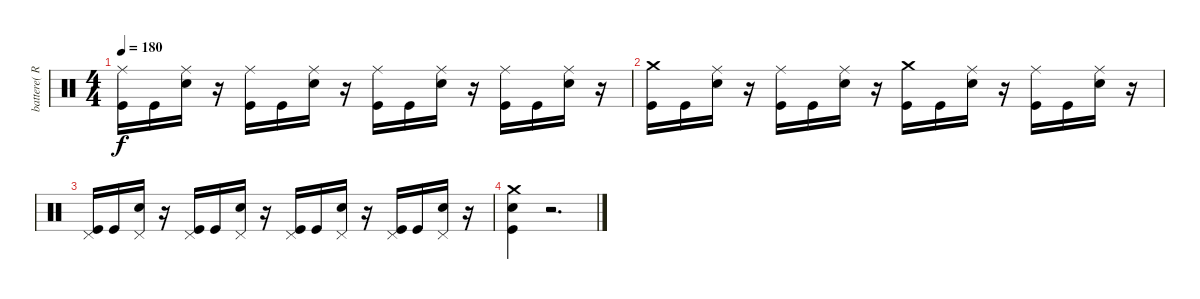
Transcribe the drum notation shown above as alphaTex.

\track ("battere( Rob )" "battere( R") {instrument percussion}
\staff {score}
\articulation defaults
\ts (4 4)
\tempo 180
\clef neutral
\ks c
("Ride (middle)" "Kick (hit)").16{dy f} "Kick (hit)".16 ("Ride (middle)" "Snare (hit) 2").16 r.16 ("Ride (middle)" "Kick (hit)").16 "Kick (hit)".16 ("Ride (middle)" "Snare (hit) 2").16 r.16 ("Ride (middle)" "Kick (hit)").16 "Kick (hit)".16 ("Ride (middle)" "Snare (hit) 2").16 r.16 ("Ride (middle)" "Kick (hit)").16 "Kick (hit)".16 ("Ride (middle)" "Snare (hit) 2").16 r.16 |
("Crash medium (hit)" "Kick (hit)").16 "Kick (hit)".16 ("Ride (middle)" "Snare (hit) 2").16 r.16 ("Ride (middle)" "Kick (hit)").16 "Kick (hit)".16 ("Ride (middle)" "Snare (hit) 2").16 r.16 ("Crash medium (hit)" "Kick (hit)").16 "Kick (hit)".16 ("Ride (middle)" "Snare (hit) 2").16 r.16 ("Ride (middle)" "Kick (hit)").16 "Kick (hit)".16 ("Ride (middle)" "Snare (hit) 2").16 r.16 |
("Pedal Hi-Hat (hit)" "Kick (hit)").16 "Kick (hit)".16 ("Pedal Hi-Hat (hit)" "Snare (hit) 2").16 r.16 ("Pedal Hi-Hat (hit)" "Kick (hit)").16 "Kick (hit)".16 ("Pedal Hi-Hat (hit)" "Snare (hit) 2").16 r.16 ("Pedal Hi-Hat (hit)" "Kick (hit)").16 "Kick (hit)".16 ("Pedal Hi-Hat (hit)" "Snare (hit) 2").16 r.16 ("Pedal Hi-Hat (hit)" "Kick (hit)").16 "Kick (hit)".16 ("Pedal Hi-Hat (hit)" "Snare (hit) 2").16 r.16 |
("Crash medium (hit)" "Snare (hit) 2" "Kick (hit)").4 r.2{d}
